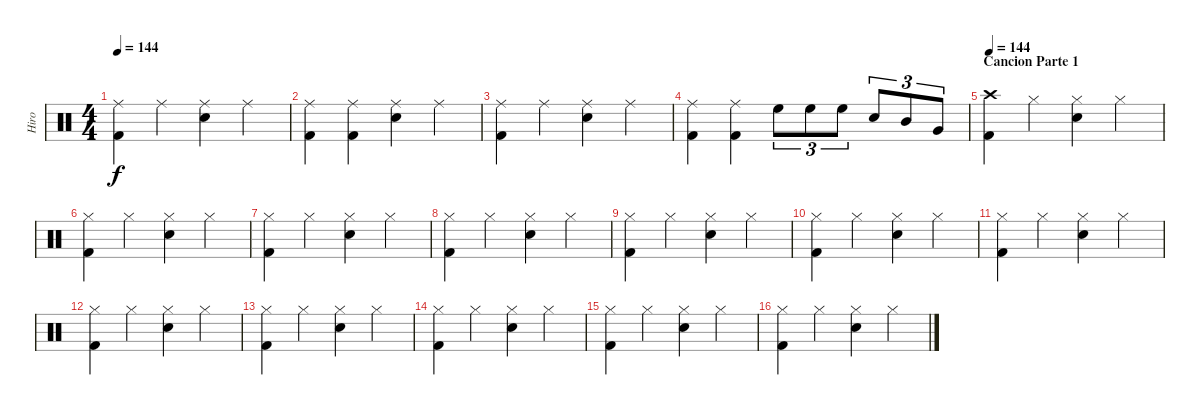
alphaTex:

\track ("Hiro" "Hiro") {instrument percussion}
\staff {score}
\articulation defaults
\ts (4 4)
\tempo 144
\clef neutral
\ks c
("Kick (hit) 2" "Ride (middle)").4{dy f} "Ride (middle)".4 ("Snare (hit) 2" "Ride (middle)").4 "Ride (middle)".4 |
("Kick (hit) 2" "Ride (middle)").4 ("Kick (hit) 2" "Ride (middle)").4 ("Snare (hit) 2" "Ride (middle)").4 "Ride (middle)".4 |
("Kick (hit) 2" "Ride (middle)").4 "Ride (middle)".4 ("Snare (hit) 2" "Ride (middle)").4 "Ride (middle)".4 |
("Kick (hit) 2" "Ride (middle)").4 ("Kick (hit) 2" "Ride (middle)").4 "High Floor Tom (hit)".8{tu (3 2)} "High Floor Tom (hit)".8{tu (3 2)} "High Floor Tom (hit)".8{tu (3 2)} "Snare (hit) 2".8{tu (3 2)} "Mid Tom (hit)".8{tu (3 2)} "Very Low Tom (hit)".8{tu (3 2)} |
\section ("" "Cancion Parte 1")
\tempo 144
("Kick (hit) 2" "Crash high (hit)").4 "Hi-Hat (closed)".4 ("Snare (hit) 2" "Hi-Hat (closed)").4 "Hi-Hat (closed)".4 |
("Hi-Hat (closed)" "Kick (hit) 2").4 "Hi-Hat (closed)".4 ("Hi-Hat (closed)" "Snare (hit) 2").4 "Hi-Hat (closed)".4 |
("Hi-Hat (closed)" "Kick (hit) 2").4 "Hi-Hat (closed)".4 ("Hi-Hat (closed)" "Snare (hit) 2").4 "Hi-Hat (closed)".4 |
("Hi-Hat (closed)" "Kick (hit) 2").4 "Hi-Hat (closed)".4 ("Hi-Hat (closed)" "Snare (hit) 2").4 "Hi-Hat (closed)".4 |
("Hi-Hat (closed)" "Kick (hit) 2").4 "Hi-Hat (closed)".4 ("Hi-Hat (closed)" "Snare (hit) 2").4 "Hi-Hat (closed)".4 |
("Hi-Hat (closed)" "Kick (hit) 2").4 "Hi-Hat (closed)".4 ("Hi-Hat (closed)" "Snare (hit) 2").4 "Hi-Hat (closed)".4 |
("Hi-Hat (closed)" "Kick (hit) 2").4 "Hi-Hat (closed)".4 ("Hi-Hat (closed)" "Snare (hit) 2").4 "Hi-Hat (closed)".4 |
("Hi-Hat (closed)" "Kick (hit) 2").4 "Hi-Hat (closed)".4 ("Hi-Hat (closed)" "Snare (hit) 2").4 "Hi-Hat (closed)".4 |
("Hi-Hat (closed)" "Kick (hit) 2").4 "Hi-Hat (closed)".4 ("Hi-Hat (closed)" "Snare (hit) 2").4 "Hi-Hat (closed)".4 |
("Kick (hit) 2" "Hi-Hat (closed)").4 "Hi-Hat (closed)".4 ("Snare (hit) 2" "Hi-Hat (closed)").4 "Hi-Hat (closed)".4 |
("Hi-Hat (closed)" "Kick (hit) 2").4 "Hi-Hat (closed)".4 ("Hi-Hat (closed)" "Snare (hit) 2").4 "Hi-Hat (closed)".4 |
("Hi-Hat (closed)" "Kick (hit) 2").4 "Hi-Hat (closed)".4 ("Hi-Hat (closed)" "Snare (hit) 2").4 "Hi-Hat (closed)".4
